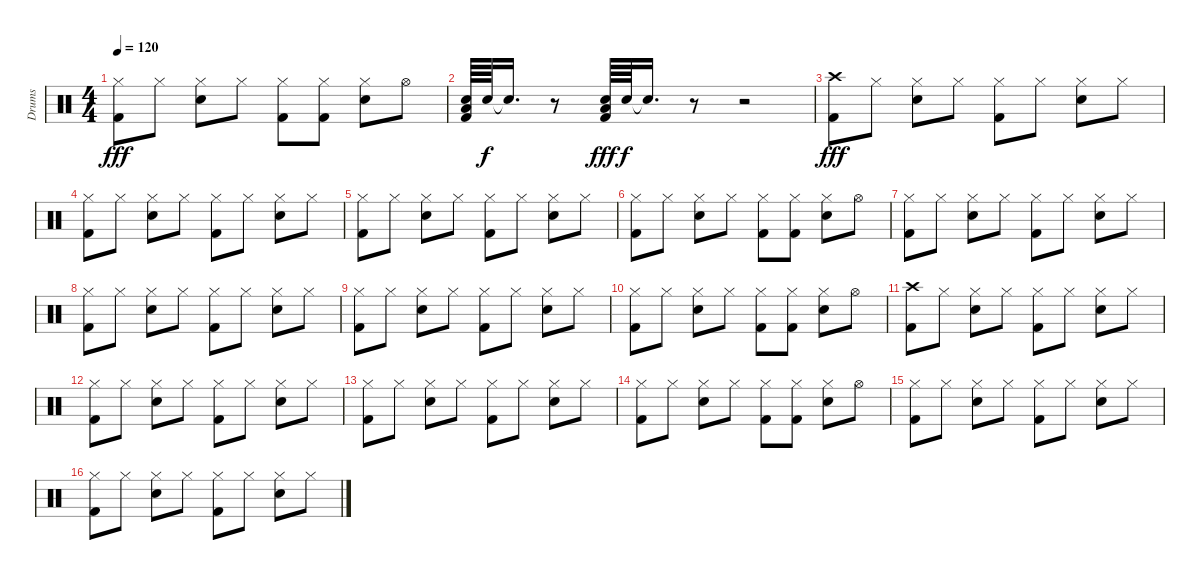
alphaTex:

\track ("Drums" "Drums") {instrument percussion}
\staff {score}
\articulation defaults
\ts (4 4)
\tempo 120
\clef neutral
\ks c
("Hi-Hat (closed)" "Kick (hit) 2").8{dy fff} "Hi-Hat (closed)".8 ("Hi-Hat (closed)" "Snare (hit) 2").8 "Hi-Hat (closed)".8 ("Hi-Hat (closed)" "Kick (hit) 2").8 ("Hi-Hat (closed)" "Kick (hit) 2").8 ("Hi-Hat (closed)" "Snare (hit) 2").8 "Hi-Hat (open)".8 |
("Snare (hit) 2" "Low Floor Tom (hit)" "Kick (hit) 2").64 "Snare (hit) 2".64{dy f} "Snare (hit)"{t}.16{d} r.8 ("Snare (hit) 2" "Low Floor Tom (hit)" "Kick (hit) 2").64{dy fff} "Snare (hit) 2".64{dy f} "Snare (hit)"{t}.16{d} r.8 r.2 |
("Crash high (hit)" "Kick (hit) 2").8{dy fff} "Hi-Hat (closed)".8 ("Hi-Hat (closed)" "Snare (hit) 2").8 "Hi-Hat (closed)".8 ("Hi-Hat (closed)" "Kick (hit) 2").8 "Hi-Hat (closed)".8 ("Hi-Hat (closed)" "Snare (hit) 2").8 "Hi-Hat (closed)".8 |
("Hi-Hat (closed)" "Kick (hit) 2").8 "Hi-Hat (closed)".8 ("Hi-Hat (closed)" "Snare (hit) 2").8 "Hi-Hat (closed)".8 ("Hi-Hat (closed)" "Kick (hit) 2").8 "Hi-Hat (closed)".8 ("Hi-Hat (closed)" "Snare (hit) 2").8 "Hi-Hat (closed)".8 |
("Hi-Hat (closed)" "Kick (hit) 2").8 "Hi-Hat (closed)".8 ("Hi-Hat (closed)" "Snare (hit) 2").8 "Hi-Hat (closed)".8 ("Hi-Hat (closed)" "Kick (hit) 2").8 "Hi-Hat (closed)".8 ("Hi-Hat (closed)" "Snare (hit) 2").8 "Hi-Hat (closed)".8 |
("Hi-Hat (closed)" "Kick (hit) 2").8 "Hi-Hat (closed)".8 ("Hi-Hat (closed)" "Snare (hit) 2").8 "Hi-Hat (closed)".8 ("Hi-Hat (closed)" "Kick (hit) 2").8 ("Hi-Hat (closed)" "Kick (hit) 2").8 ("Hi-Hat (closed)" "Snare (hit) 2").8 "Hi-Hat (open)".8 |
("Hi-Hat (closed)" "Kick (hit) 2").8 "Hi-Hat (closed)".8 ("Hi-Hat (closed)" "Snare (hit) 2").8 "Hi-Hat (closed)".8 ("Hi-Hat (closed)" "Kick (hit) 2").8 "Hi-Hat (closed)".8 ("Hi-Hat (closed)" "Snare (hit) 2").8 "Hi-Hat (closed)".8 |
("Hi-Hat (closed)" "Kick (hit) 2").8 "Hi-Hat (closed)".8 ("Hi-Hat (closed)" "Snare (hit) 2").8 "Hi-Hat (closed)".8 ("Hi-Hat (closed)" "Kick (hit) 2").8 "Hi-Hat (closed)".8 ("Hi-Hat (closed)" "Snare (hit) 2").8 "Hi-Hat (closed)".8 |
("Hi-Hat (closed)" "Kick (hit) 2").8 "Hi-Hat (closed)".8 ("Hi-Hat (closed)" "Snare (hit) 2").8 "Hi-Hat (closed)".8 ("Hi-Hat (closed)" "Kick (hit) 2").8 "Hi-Hat (closed)".8 ("Hi-Hat (closed)" "Snare (hit) 2").8 "Hi-Hat (closed)".8 |
("Hi-Hat (closed)" "Kick (hit) 2").8 "Hi-Hat (closed)".8 ("Hi-Hat (closed)" "Snare (hit) 2").8 "Hi-Hat (closed)".8 ("Hi-Hat (closed)" "Kick (hit) 2").8 ("Hi-Hat (closed)" "Kick (hit) 2").8 ("Hi-Hat (closed)" "Snare (hit) 2").8 "Hi-Hat (open)".8 |
("Crash high (hit)" "Kick (hit) 2").8 "Hi-Hat (closed)".8 ("Hi-Hat (closed)" "Snare (hit) 2").8 "Hi-Hat (closed)".8 ("Hi-Hat (closed)" "Kick (hit) 2").8 "Hi-Hat (closed)".8 ("Hi-Hat (closed)" "Snare (hit) 2").8 "Hi-Hat (closed)".8 |
("Hi-Hat (closed)" "Kick (hit) 2").8 "Hi-Hat (closed)".8 ("Hi-Hat (closed)" "Snare (hit) 2").8 "Hi-Hat (closed)".8 ("Hi-Hat (closed)" "Kick (hit) 2").8 "Hi-Hat (closed)".8 ("Hi-Hat (closed)" "Snare (hit) 2").8 "Hi-Hat (closed)".8 |
("Hi-Hat (closed)" "Kick (hit) 2").8 "Hi-Hat (closed)".8 ("Hi-Hat (closed)" "Snare (hit) 2").8 "Hi-Hat (closed)".8 ("Hi-Hat (closed)" "Kick (hit) 2").8 "Hi-Hat (closed)".8 ("Hi-Hat (closed)" "Snare (hit) 2").8 "Hi-Hat (closed)".8 |
("Hi-Hat (closed)" "Kick (hit) 2").8 "Hi-Hat (closed)".8 ("Hi-Hat (closed)" "Snare (hit) 2").8 "Hi-Hat (closed)".8 ("Hi-Hat (closed)" "Kick (hit) 2").8 ("Hi-Hat (closed)" "Kick (hit) 2").8 ("Hi-Hat (closed)" "Snare (hit) 2").8 "Hi-Hat (open)".8 |
("Hi-Hat (closed)" "Kick (hit) 2").8 "Hi-Hat (closed)".8 ("Hi-Hat (closed)" "Snare (hit) 2").8 "Hi-Hat (closed)".8 ("Hi-Hat (closed)" "Kick (hit) 2").8 "Hi-Hat (closed)".8 ("Hi-Hat (closed)" "Snare (hit) 2").8 "Hi-Hat (closed)".8 |
("Hi-Hat (closed)" "Kick (hit) 2").8 "Hi-Hat (closed)".8 ("Hi-Hat (closed)" "Snare (hit) 2").8 "Hi-Hat (closed)".8 ("Hi-Hat (closed)" "Kick (hit) 2").8 "Hi-Hat (closed)".8 ("Hi-Hat (closed)" "Snare (hit) 2").8 "Hi-Hat (closed)".8
